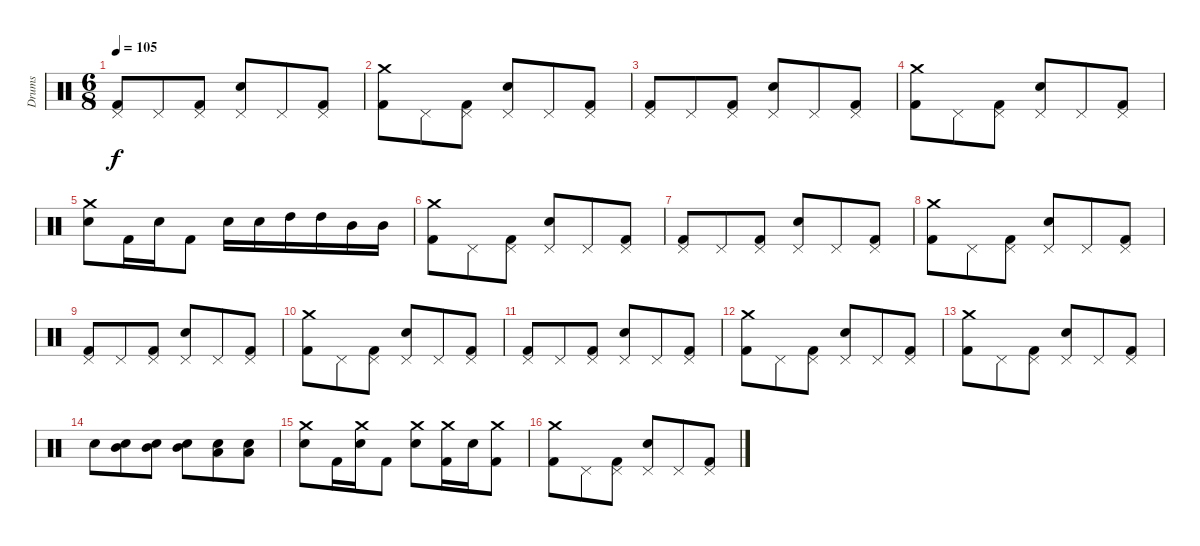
\track ("Drums" "Drums") {instrument percussion}
\staff {score}
\articulation defaults
\ts (6 8)
\tempo 105
\clef neutral
\ks c
("Pedal Hi-Hat (hit)" "Kick (hit) 2").8{dy f} "Pedal Hi-Hat (hit)".8 ("Pedal Hi-Hat (hit)" "Kick (hit) 2").8 ("Pedal Hi-Hat (hit)" "Snare (hit) 2").8 "Pedal Hi-Hat (hit)".8 ("Pedal Hi-Hat (hit)" "Kick (hit) 2").8 |
("Crash medium (hit)" "Kick (hit) 2").8 "Pedal Hi-Hat (hit)".8 ("Pedal Hi-Hat (hit)" "Kick (hit) 2").8 ("Pedal Hi-Hat (hit)" "Snare (hit) 2").8 "Pedal Hi-Hat (hit)".8 ("Pedal Hi-Hat (hit)" "Kick (hit) 2").8 |
("Pedal Hi-Hat (hit)" "Kick (hit) 2").8 "Pedal Hi-Hat (hit)".8 ("Pedal Hi-Hat (hit)" "Kick (hit) 2").8 ("Pedal Hi-Hat (hit)" "Snare (hit) 2").8 "Pedal Hi-Hat (hit)".8 ("Pedal Hi-Hat (hit)" "Kick (hit) 2").8 |
("Crash medium (hit)" "Kick (hit) 2").8 "Pedal Hi-Hat (hit)".8 ("Pedal Hi-Hat (hit)" "Kick (hit) 2").8 ("Pedal Hi-Hat (hit)" "Snare (hit) 2").8 "Pedal Hi-Hat (hit)".8 ("Pedal Hi-Hat (hit)" "Kick (hit) 2").8 |
("Crash medium (hit)" "Snare (hit) 2").8 "Kick (hit) 2".16 "Snare (hit) 2".16 "Kick (hit) 2".8 "Snare (hit) 2".16 "Snare (hit) 2".16 "High Tom (hit)".16 "High Tom (hit)".16 "Mid Tom (hit)".16 "Mid Tom (hit)".16 |
("Crash medium (hit)" "Kick (hit) 2").8 "Pedal Hi-Hat (hit)".8 ("Pedal Hi-Hat (hit)" "Kick (hit) 2").8 ("Pedal Hi-Hat (hit)" "Snare (hit) 2").8 "Pedal Hi-Hat (hit)".8 ("Pedal Hi-Hat (hit)" "Kick (hit) 2").8 |
("Pedal Hi-Hat (hit)" "Kick (hit) 2").8 "Pedal Hi-Hat (hit)".8 ("Pedal Hi-Hat (hit)" "Kick (hit) 2").8 ("Pedal Hi-Hat (hit)" "Snare (hit) 2").8 "Pedal Hi-Hat (hit)".8 ("Pedal Hi-Hat (hit)" "Kick (hit) 2").8 |
("Crash medium (hit)" "Kick (hit) 2").8 "Pedal Hi-Hat (hit)".8 ("Pedal Hi-Hat (hit)" "Kick (hit) 2").8 ("Pedal Hi-Hat (hit)" "Snare (hit) 2").8 "Pedal Hi-Hat (hit)".8 ("Pedal Hi-Hat (hit)" "Kick (hit) 2").8 |
("Pedal Hi-Hat (hit)" "Kick (hit) 2").8 "Pedal Hi-Hat (hit)".8 ("Pedal Hi-Hat (hit)" "Kick (hit) 2").8 ("Pedal Hi-Hat (hit)" "Snare (hit) 2").8 "Pedal Hi-Hat (hit)".8 ("Pedal Hi-Hat (hit)" "Kick (hit) 2").8 |
("Crash medium (hit)" "Kick (hit) 2").8 "Pedal Hi-Hat (hit)".8 ("Pedal Hi-Hat (hit)" "Kick (hit) 2").8 ("Pedal Hi-Hat (hit)" "Snare (hit) 2").8 "Pedal Hi-Hat (hit)".8 ("Pedal Hi-Hat (hit)" "Kick (hit) 2").8 |
("Pedal Hi-Hat (hit)" "Kick (hit) 2").8 "Pedal Hi-Hat (hit)".8 ("Pedal Hi-Hat (hit)" "Kick (hit) 2").8 ("Pedal Hi-Hat (hit)" "Snare (hit) 2").8 "Pedal Hi-Hat (hit)".8 ("Pedal Hi-Hat (hit)" "Kick (hit) 2").8 |
("Crash medium (hit)" "Kick (hit) 2").8 "Pedal Hi-Hat (hit)".8 ("Pedal Hi-Hat (hit)" "Kick (hit) 2").8 ("Pedal Hi-Hat (hit)" "Snare (hit) 2").8 "Pedal Hi-Hat (hit)".8 ("Pedal Hi-Hat (hit)" "Kick (hit) 2").8 |
("Crash medium (hit)" "Kick (hit) 2").8 "Pedal Hi-Hat (hit)".8 ("Pedal Hi-Hat (hit)" "Kick (hit) 2").8 ("Pedal Hi-Hat (hit)" "Snare (hit) 2").8 "Pedal Hi-Hat (hit)".8 ("Pedal Hi-Hat (hit)" "Kick (hit) 2").8 |
"Snare (hit) 2".8 ("Mid Tom (hit)" "Snare (hit) 2").8{volume 8} ("Mid Tom (hit)" "Snare (hit) 2").8{volume 13} ("Mid Tom (hit)" "Snare (hit) 2").8 ("Low Tom (hit)" "Snare (hit) 2").8 ("Low Tom (hit)" "Snare (hit) 2").8 |
("Crash medium (hit)" "Snare (hit) 2").8 "Kick (hit) 2".16 ("Crash medium (hit)" "Snare (hit) 2").16 "Kick (hit) 2".8 ("Crash medium (hit)" "Snare (hit) 2").8 ("Crash medium (hit)" "Kick (hit) 2").16 "Snare (hit) 2".16 ("Crash medium (hit)" "Kick (hit) 2").8 |
("Crash medium (hit)" "Kick (hit) 2").8 "Pedal Hi-Hat (hit)".8 ("Pedal Hi-Hat (hit)" "Kick (hit) 2").8 ("Pedal Hi-Hat (hit)" "Snare (hit) 2").8 "Pedal Hi-Hat (hit)".8 ("Pedal Hi-Hat (hit)" "Kick (hit) 2").8
